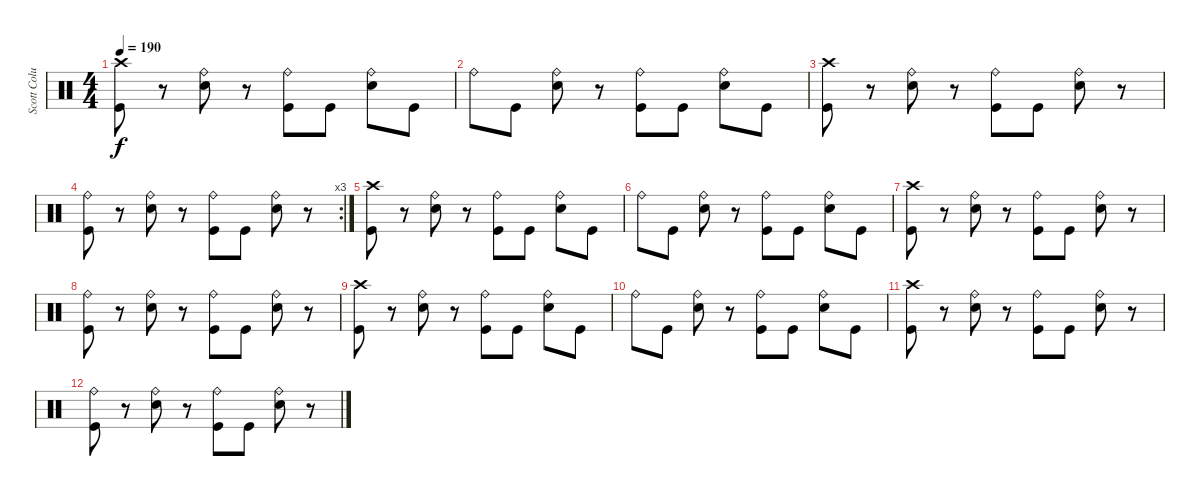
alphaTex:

\track ("Scott Columbus" "Scott Colu") {instrument percussion}
\staff {score}
\articulation defaults
\ts (4 4)
\tempo 190
\clef neutral
\ks c
("Crash high (hit)" "Kick (hit)").8{dy f} r.8 ("Ride (bell)" "Snare (hit) 2").8 r.8 ("Ride (bell)" "Kick (hit)").8 "Kick (hit)".8 ("Ride (bell)" "Snare (hit) 2").8 "Kick (hit)".8 |
"Ride (bell)".8 "Kick (hit)".8 ("Ride (bell)" "Snare (hit) 2").8 r.8 ("Ride (bell)" "Kick (hit)").8 "Kick (hit)".8 ("Ride (bell)" "Snare (hit) 2").8 "Kick (hit)".8 |
("Crash high (hit)" "Kick (hit)").8 r.8 ("Ride (bell)" "Snare (hit) 2").8 r.8 ("Ride (bell)" "Kick (hit)").8 "Kick (hit)".8 ("Ride (bell)" "Snare (hit) 2").8 r.8 |
\rc 3
("Ride (bell)" "Kick (hit)").8 r.8 ("Ride (bell)" "Snare (hit) 2").8 r.8 ("Ride (bell)" "Kick (hit)").8 "Kick (hit)".8 ("Ride (bell)" "Snare (hit) 2").8 r.8 |
("Crash high (hit)" "Kick (hit)").8 r.8 ("Ride (bell)" "Snare (hit) 2").8 r.8 ("Ride (bell)" "Kick (hit)").8 "Kick (hit)".8 ("Ride (bell)" "Snare (hit) 2").8 "Kick (hit)".8 |
"Ride (bell)".8 "Kick (hit)".8 ("Ride (bell)" "Snare (hit) 2").8 r.8 ("Ride (bell)" "Kick (hit)").8 "Kick (hit)".8 ("Ride (bell)" "Snare (hit) 2").8 "Kick (hit)".8 |
("Crash high (hit)" "Kick (hit)").8{volume 4} r.8 ("Ride (bell)" "Snare (hit) 2").8 r.8 ("Ride (bell)" "Kick (hit)").8 "Kick (hit)".8 ("Ride (bell)" "Snare (hit) 2").8 r.8 |
("Ride (bell)" "Kick (hit)").8 r.8 ("Ride (bell)" "Snare (hit) 2").8 r.8 ("Ride (bell)" "Kick (hit)").8 "Kick (hit)".8 ("Ride (bell)" "Snare (hit) 2").8 r.8 |
("Crash high (hit)" "Kick (hit)").8{volume 0} r.8 ("Ride (bell)" "Snare (hit) 2").8 r.8 ("Ride (bell)" "Kick (hit)").8 "Kick (hit)".8 ("Ride (bell)" "Snare (hit) 2").8 "Kick (hit)".8 |
"Ride (bell)".8 "Kick (hit)".8 ("Ride (bell)" "Snare (hit) 2").8 r.8 ("Ride (bell)" "Kick (hit)").8 "Kick (hit)".8 ("Ride (bell)" "Snare (hit) 2").8 "Kick (hit)".8 |
("Crash high (hit)" "Kick (hit)").8 r.8 ("Ride (bell)" "Snare (hit) 2").8 r.8 ("Ride (bell)" "Kick (hit)").8 "Kick (hit)".8 ("Ride (bell)" "Snare (hit) 2").8 r.8 |
("Ride (bell)" "Kick (hit)").8 r.8 ("Ride (bell)" "Snare (hit) 2").8 r.8 ("Ride (bell)" "Kick (hit)").8 "Kick (hit)".8 ("Ride (bell)" "Snare (hit) 2").8 r.8
